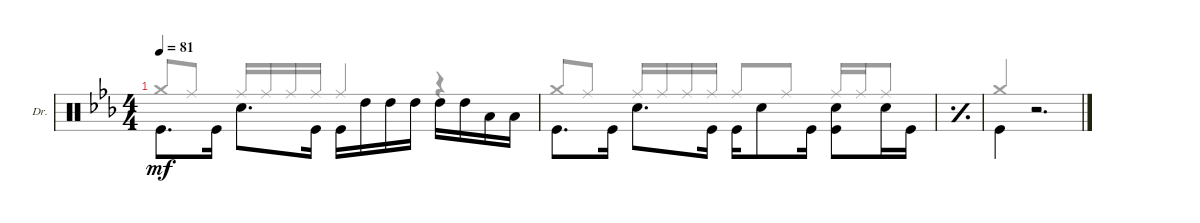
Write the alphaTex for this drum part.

\bracketExtendMode groupsimilarinstruments
\firstSystemTrackNameOrientation horizontal
\otherSystemsTrackNameOrientation horizontal
\defaultBarNumberDisplay FirstOfSystem
\track ("Drums" "Dr.") {multiBarRest instrument percussion}
\staff {score}
\articulation defaults
\voice
\ts (4 4)
\tempo 81
\clef neutral
\ks eb "Kick (hit)".8{d dy mf} "Kick (hit)".16{beam invert} "Snare (hit) 2".8{d} "Kick (hit)".16{beam invert} "Kick (hit)".16 "High Tom (hit)".16{beam invert} "High Tom (hit)".16 "High Tom (hit)".16 "High Tom (hit)".16{beam invert} "High Tom (hit)".16 "Low Tom (hit)".16 "Low Tom (hit)".16
|
"Kick (hit)".8{d beam invert} "Kick (hit)".16 "Snare (hit) 2".8{d beam invert} "Kick (hit)".16 "Kick (hit)".16{beam invert} "Snare (hit) 2".8 "Kick (hit)".16 ("Snare (hit) 2" "Kick (hit)").8 "Snare (hit) 2".16{beam invert} "Kick (hit)".16 |
\simile simple
|
\simile none "Kick (hit)".4{beam invert}
r.2{d beam invert}
\voice
\clef neutral
\ottava regular
\simile none
\ks eb "Crash medium (hit)".8{dy mf} "Ride (middle)".8{beam invert} "Ride (middle)".16 "Ride (middle)".16{beam invert} "Ride (middle)".16 "Ride (middle)".16 "Ride (middle)".4{beam invert}
r.4 |
"Crash medium (hit)".8 "Ride (middle)".8{beam invert} "Ride (middle)".16 "Ride (middle)".16 "Ride (middle)".16{beam invert} "Ride (middle)".16 "Ride (middle)".8{beam invert} "Ride (middle)".8 "Ride (middle)".16{beam invert} "Ride (middle)".16 "Ride (middle)".8 |
\simile simple
|
\simile none "Crash medium (hit)".4{beam invert}
r.2{d}
